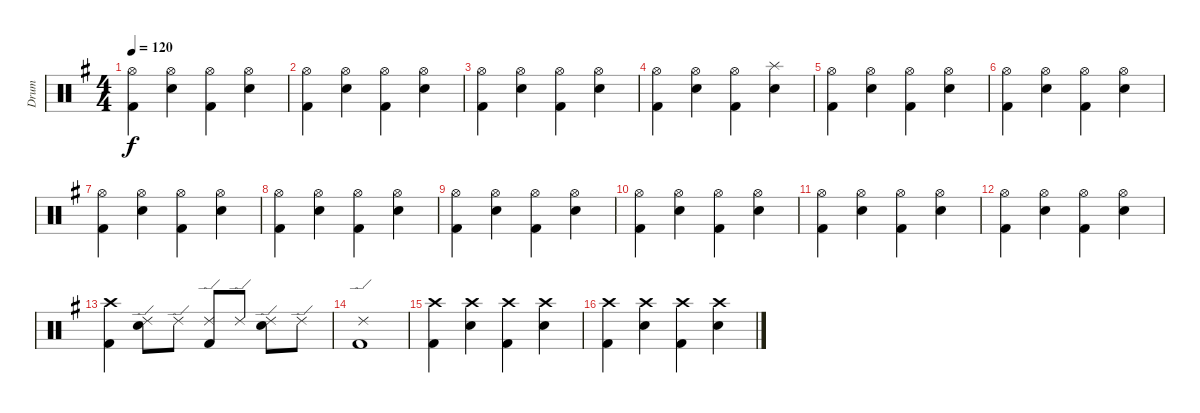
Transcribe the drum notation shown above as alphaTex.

\track ("Drum" "Drum") {instrument percussion}
\staff {score}
\articulation defaults
\ts (4 4)
\tempo 120
\clef neutral
\ks g
("Hi-Hat (open)" "Kick (hit) 2").4{dy f} ("Hi-Hat (open)" "Electric Snare (hit)").4 ("Hi-Hat (open)" "Kick (hit) 2").4 ("Hi-Hat (open)" "Electric Snare (hit)").4 |
("Hi-Hat (open)" "Kick (hit) 2").4 ("Hi-Hat (open)" "Electric Snare (hit)").4 ("Hi-Hat (open)" "Kick (hit) 2").4 ("Hi-Hat (open)" "Electric Snare (hit)").4 |
("Hi-Hat (open)" "Kick (hit) 2").4 ("Hi-Hat (open)" "Electric Snare (hit)").4 ("Hi-Hat (open)" "Kick (hit) 2").4 ("Hi-Hat (open)" "Electric Snare (hit)").4 |
("Hi-Hat (open)" "Kick (hit) 2").4 ("Hi-Hat (open)" "Electric Snare (hit)").4 ("Hi-Hat (open)" "Kick (hit) 2").4 ("Splash (hit)" "Electric Snare (hit)").4 |
("Hi-Hat (open)" "Kick (hit) 2").4 ("Hi-Hat (open)" "Electric Snare (hit)").4 ("Hi-Hat (open)" "Kick (hit) 2").4 ("Hi-Hat (open)" "Electric Snare (hit)").4 |
("Hi-Hat (open)" "Kick (hit) 2").4 ("Hi-Hat (open)" "Electric Snare (hit)").4 ("Hi-Hat (open)" "Kick (hit) 2").4 ("Hi-Hat (open)" "Electric Snare (hit)").4 |
("Hi-Hat (open)" "Kick (hit) 2").4 ("Hi-Hat (open)" "Electric Snare (hit)").4 ("Hi-Hat (open)" "Kick (hit) 2").4 ("Hi-Hat (open)" "Electric Snare (hit)").4 |
("Hi-Hat (open)" "Kick (hit) 2").4 ("Hi-Hat (open)" "Electric Snare (hit)").4 ("Hi-Hat (open)" "Kick (hit) 2").4 ("Hi-Hat (open)" "Electric Snare (hit)").4 |
("Hi-Hat (open)" "Kick (hit) 2").4 ("Hi-Hat (open)" "Electric Snare (hit)").4 ("Hi-Hat (open)" "Kick (hit) 2").4 ("Hi-Hat (open)" "Electric Snare (hit)").4 |
("Hi-Hat (open)" "Kick (hit) 2").4 ("Hi-Hat (open)" "Electric Snare (hit)").4 ("Hi-Hat (open)" "Kick (hit) 2").4 ("Hi-Hat (open)" "Electric Snare (hit)").4 |
("Hi-Hat (open)" "Kick (hit) 2").4 ("Hi-Hat (open)" "Electric Snare (hit)").4 ("Hi-Hat (open)" "Kick (hit) 2").4 ("Hi-Hat (open)" "Electric Snare (hit)").4 |
("Hi-Hat (open)" "Kick (hit) 2").4 ("Hi-Hat (open)" "Electric Snare (hit)").4 ("Hi-Hat (open)" "Kick (hit) 2").4 ("Hi-Hat (open)" "Electric Snare (hit)").4 |
("Crash high (hit)" "Kick (hit) 2").4 ("Ride (edge) 2" "Electric Snare (hit)").8 "Ride (edge) 2".8 ("Ride (edge) 2" "Kick (hit) 2").8 "Ride (edge) 2".8 ("Ride (edge) 2" "Electric Snare (hit)").8 "Ride (edge) 2".8 |
("Ride (edge) 2" "Kick (hit) 2").1 |
("Crash high (hit)" "Kick (hit) 2").4 ("Crash high (hit)" "Electric Snare (hit)").4 ("Crash high (hit)" "Kick (hit) 2").4 ("Crash high (hit)" "Electric Snare (hit)").4 |
("Crash high (hit)" "Kick (hit) 2").4 ("Crash high (hit)" "Electric Snare (hit)").4 ("Crash high (hit)" "Kick (hit) 2").4 ("Crash high (hit)" "Electric Snare (hit)").4
